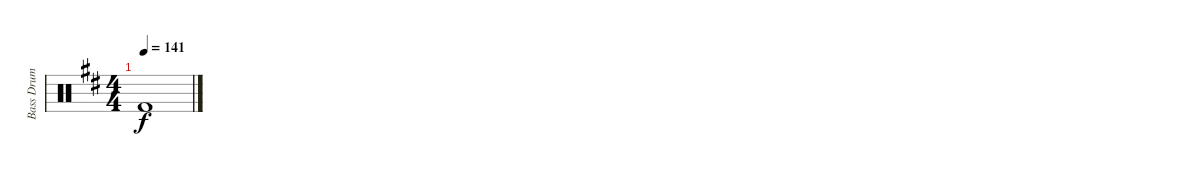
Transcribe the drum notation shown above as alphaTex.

\track ("Bass Drum" "Bass Drum") {instrument percussion}
\staff {score}
\articulation defaults
\ts (4 4)
\tempo 141
\clef neutral
\ks d "Kick (hit) 2"{t}.1{dy f}
